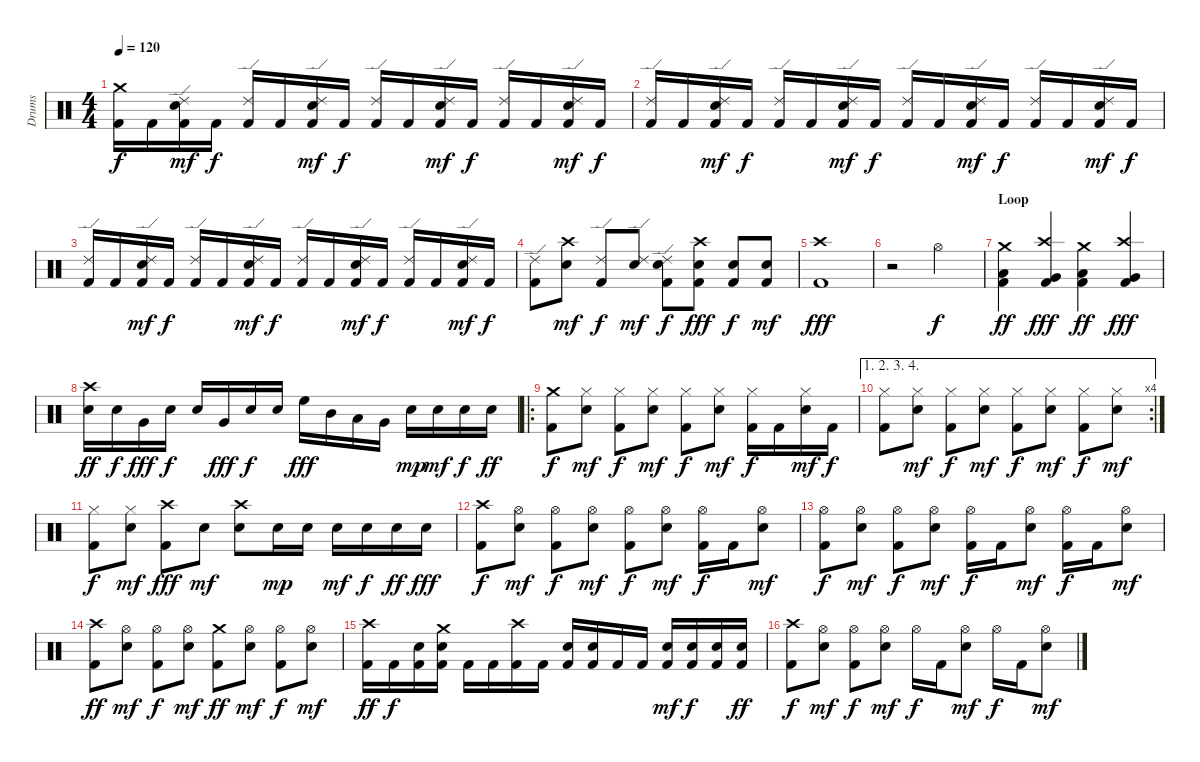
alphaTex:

\track ("Drums" "Drums") {instrument percussion}
\staff {score}
\articulation defaults
\ts (4 4)
\tempo 120
\clef neutral
\ks c
("Crash medium (hit)" "Kick (hit) 2").16{dy f} "Kick (hit) 2".16 ("Ride (edge) 2" "Snare (hit) 2" "Kick (hit) 2").16{dy mf} "Kick (hit) 2".16{dy f} ("Ride (edge) 2" "Kick (hit) 2").16 "Kick (hit) 2".16 ("Ride (edge) 2" "Snare (hit) 2" "Kick (hit) 2").16{dy mf} "Kick (hit) 2".16{dy f} ("Ride (edge) 2" "Kick (hit) 2").16 "Kick (hit) 2".16 ("Ride (edge) 2" "Snare (hit) 2" "Kick (hit) 2").16{dy mf} "Kick (hit) 2".16{dy f} ("Ride (edge) 2" "Kick (hit) 2").16 "Kick (hit) 2".16 ("Ride (edge) 2" "Snare (hit) 2" "Kick (hit) 2").16{dy mf} "Kick (hit) 2".16{dy f} |
("Ride (edge) 2" "Kick (hit) 2").16 "Kick (hit) 2".16 ("Ride (edge) 2" "Snare (hit) 2" "Kick (hit) 2").16{dy mf} "Kick (hit) 2".16{dy f} ("Ride (edge) 2" "Kick (hit) 2").16 "Kick (hit) 2".16 ("Ride (edge) 2" "Snare (hit) 2" "Kick (hit) 2").16{dy mf} "Kick (hit) 2".16{dy f} ("Ride (edge) 2" "Kick (hit) 2").16 "Kick (hit) 2".16 ("Ride (edge) 2" "Snare (hit) 2" "Kick (hit) 2").16{dy mf} "Kick (hit) 2".16{dy f} ("Ride (edge) 2" "Kick (hit) 2").16 "Kick (hit) 2".16 ("Ride (edge) 2" "Snare (hit) 2" "Kick (hit) 2").16{dy mf} "Kick (hit) 2".16{dy f} |
("Ride (edge) 2" "Kick (hit) 2").16 "Kick (hit) 2".16 ("Ride (edge) 2" "Snare (hit) 2" "Kick (hit) 2").16{dy mf} "Kick (hit) 2".16{dy f} ("Ride (edge) 2" "Kick (hit) 2").16 "Kick (hit) 2".16 ("Ride (edge) 2" "Snare (hit) 2" "Kick (hit) 2").16{dy mf} "Kick (hit) 2".16{dy f} ("Ride (edge) 2" "Kick (hit) 2").16 "Kick (hit) 2".16 ("Ride (edge) 2" "Snare (hit) 2" "Kick (hit) 2").16{dy mf} "Kick (hit) 2".16{dy f} ("Ride (edge) 2" "Kick (hit) 2").16 "Kick (hit) 2".16 ("Ride (edge) 2" "Snare (hit) 2" "Kick (hit) 2").16{dy mf} "Kick (hit) 2".16{dy f} |
("Ride (edge) 2" "Kick (hit) 2").8 ("Crash high (hit)" "Snare (hit) 2").8{dy mf} ("Ride (edge) 2" "Kick (hit) 2").8{dy f} ("Ride (edge) 2" "Snare (hit) 2").8{dy mf} ("Ride (edge) 2" "Snare (hit) 2" "Kick (hit) 2").8{dy f} ("Crash high (hit)" "Snare (hit) 2" "Kick (hit) 2").8{dy fff} ("Snare (hit) 2" "Kick (hit) 2").8{dy f} ("Snare (hit) 2" "Kick (hit) 2").8{dy mf} |
("Crash high (hit)" "Kick (hit) 2").1{dy fff} |
r.2 "Hi-Hat (open)".2{dy f} |
\section ("" "Loop")
("Crash medium (hit)" "Low Floor Tom (hit)" "Kick (hit) 2").4{dy ff balance 4} ("Crash high (hit)" "Very Low Tom (hit)" "Kick (hit) 2").4{dy fff balance 12} ("Crash medium (hit)" "Low Floor Tom (hit)" "Kick (hit) 2").4{dy ff balance 4} ("Crash high (hit)" "Very Low Tom (hit)" "Kick (hit) 2").4{dy fff balance 12} |
("Crash high (hit)" "Snare (hit) 2").16{dy ff balance 8} "Snare (hit) 2".16{dy f} "Very Low Tom (hit)".16{dy fff} "Snare (hit) 2".16{dy f} "Snare (hit) 2".16 "Very Low Tom (hit)".16{dy fff} "Snare (hit) 2".16{dy f} "Snare (hit) 2".16 "High Floor Tom (hit)".16{dy fff} "Mid Tom (hit)".16 "Low Tom (hit)".16 "Very Low Tom (hit)".16 "Snare (hit) 2".16{dy mp} "Snare (hit) 2".16{dy mf} "Snare (hit) 2".16{dy f} "Snare (hit) 2".16{dy ff} |
\ro
("Crash medium (hit)" "Kick (hit) 2").8{dy f} ("Hi-Hat (closed)" "Snare (hit) 2").8{dy mf} ("Hi-Hat (closed)" "Kick (hit) 2").8{dy f} ("Hi-Hat (closed)" "Snare (hit) 2").8{dy mf} ("Hi-Hat (closed)" "Kick (hit) 2").8{dy f} ("Hi-Hat (closed)" "Snare (hit) 2").8{dy mf} ("Hi-Hat (closed)" "Kick (hit) 2").16{dy f} "Kick (hit) 2".16 ("Hi-Hat (closed)" "Snare (hit) 2").16{dy mf} "Kick (hit) 2".16{dy f} |
\ae (1 2 3 4)
\rc 4
("Hi-Hat (closed)" "Kick (hit) 2").8 ("Hi-Hat (closed)" "Snare (hit) 2").8{dy mf} ("Hi-Hat (closed)" "Kick (hit) 2").8{dy f} ("Hi-Hat (closed)" "Snare (hit) 2").8{dy mf} ("Hi-Hat (closed)" "Kick (hit) 2").8{dy f} ("Hi-Hat (closed)" "Snare (hit) 2").8{dy mf} ("Hi-Hat (closed)" "Kick (hit) 2").8{dy f} ("Hi-Hat (closed)" "Snare (hit) 2").8{dy mf} |
("Hi-Hat (closed)" "Kick (hit) 2").8{dy f} ("Hi-Hat (closed)" "Snare (hit) 2").8{dy mf} ("Crash high (hit)" "Kick (hit) 2").8{dy fff} "Snare (hit) 2".8{dy mf} ("Crash high (hit)" "Snare (hit) 2").8 "Snare (hit) 2".16{dy mp} "Snare (hit) 2".16 "Snare (hit) 2".16{dy mf} "Snare (hit) 2".16{dy f} "Snare (hit) 2".16{dy ff} "Snare (hit) 2".16{dy fff} |
("Crash high (hit)" "Kick (hit) 2").8{dy f} ("Hi-Hat (open)" "Snare (hit) 2").8{dy mf} ("Hi-Hat (open)" "Kick (hit) 2").8{dy f} ("Hi-Hat (open)" "Snare (hit) 2").8{dy mf} ("Hi-Hat (open)" "Kick (hit) 2").8{dy f} ("Hi-Hat (open)" "Snare (hit) 2").8{dy mf} ("Hi-Hat (open)" "Kick (hit) 2").16{dy f} "Kick (hit) 2".16 ("Hi-Hat (open)" "Snare (hit) 2").8{dy mf} |
("Hi-Hat (open)" "Kick (hit) 2").8{dy f} ("Hi-Hat (open)" "Snare (hit) 2").8{dy mf} ("Hi-Hat (open)" "Kick (hit) 2").8{dy f} ("Hi-Hat (open)" "Snare (hit) 2").8{dy mf} ("Hi-Hat (open)" "Kick (hit) 2").16{dy f} "Kick (hit) 2".16 ("Hi-Hat (open)" "Snare (hit) 2").8{dy mf} ("Hi-Hat (open)" "Kick (hit) 2").16{dy f} "Kick (hit) 2".16 ("Hi-Hat (open)" "Snare (hit) 2").8{dy mf} |
("Crash high (hit)" "Kick (hit) 2").8{dy ff} ("Hi-Hat (open)" "Snare (hit) 2").8{dy mf} ("Hi-Hat (open)" "Kick (hit) 2").8{dy f} ("Hi-Hat (open)" "Snare (hit) 2").8{dy mf} ("Crash medium (hit)" "Kick (hit) 2").8{dy ff} ("Hi-Hat (open)" "Snare (hit) 2").8{dy mf} ("Hi-Hat (open)" "Kick (hit) 2").8{dy f} ("Hi-Hat (open)" "Snare (hit) 2").8{dy mf} |
("Crash high (hit)" "Kick (hit) 2").16{dy ff} "Kick (hit) 2".16{dy f} ("Snare (hit) 2" "Kick (hit) 2").16 ("Crash medium (hit)" "Snare (hit) 2" "Kick (hit) 2").16 "Kick (hit) 2".16 "Kick (hit) 2".16 ("Crash high (hit)" "Kick (hit) 2").16 "Kick (hit) 2".16 ("Snare (hit) 2" "Kick (hit) 2").16 ("Snare (hit) 2" "Kick (hit) 2").16 "Kick (hit) 2".16 "Kick (hit) 2".16 ("Snare (hit) 2" "Kick (hit) 2").16{dy mf} ("Snare (hit) 2" "Kick (hit) 2").16{dy f} ("Snare (hit) 2" "Kick (hit) 2").16 ("Snare (hit) 2" "Kick (hit) 2").16{dy ff} |
("Crash high (hit)" "Kick (hit) 2").8{dy f} ("Hi-Hat (open)" "Snare (hit) 2").8{dy mf} ("Hi-Hat (open)" "Kick (hit) 2").8{dy f} ("Hi-Hat (open)" "Snare (hit) 2").8{dy mf} "Hi-Hat (open)".16{dy f} "Kick (hit) 2".16 ("Hi-Hat (open)" "Snare (hit) 2").8{dy mf} "Hi-Hat (open)".16{dy f} "Kick (hit) 2".16 ("Hi-Hat (open)" "Snare (hit) 2").8{dy mf}
